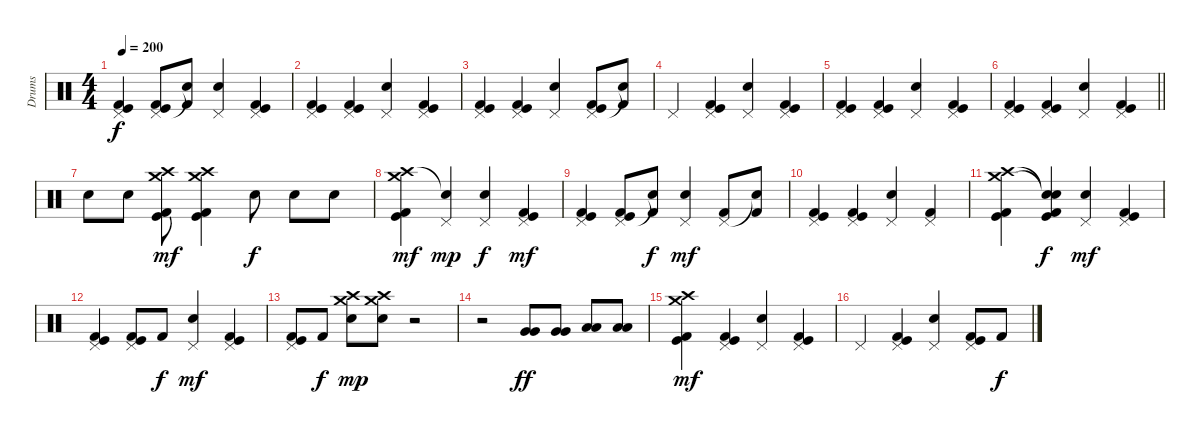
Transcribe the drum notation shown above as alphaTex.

\track ("Drums" "Drums") {instrument percussion}
\staff {score}
\articulation defaults
\ts (4 4)
\tempo 200
\clef neutral
\ks c
("Pedal Hi-Hat (hit)" "Kick (hit)" "Kick (hit) 2").4{dy f} ("Pedal Hi-Hat (hit)" "Kick (hit)" "Kick (hit) 2").8 ("Snare (hit)"{t} "Kick (hit) 2").8 ("Pedal Hi-Hat (hit)" "Snare (hit) 2").4 ("Pedal Hi-Hat (hit)" "Kick (hit)" "Kick (hit) 2").4 |
("Pedal Hi-Hat (hit)" "Kick (hit)" "Kick (hit) 2").4 ("Pedal Hi-Hat (hit)" "Kick (hit)" "Kick (hit) 2").4 ("Pedal Hi-Hat (hit)" "Snare (hit) 2").4 ("Pedal Hi-Hat (hit)" "Kick (hit)" "Kick (hit) 2").4 |
("Pedal Hi-Hat (hit)" "Kick (hit)" "Kick (hit) 2").4 ("Pedal Hi-Hat (hit)" "Kick (hit)" "Kick (hit) 2").4 ("Pedal Hi-Hat (hit)" "Snare (hit) 2").4 ("Pedal Hi-Hat (hit)" "Kick (hit)" "Kick (hit) 2").8 ("Snare (hit)"{t} "Kick (hit) 2").8 |
"Pedal Hi-Hat (hit)".4 ("Pedal Hi-Hat (hit)" "Kick (hit)" "Kick (hit) 2").4 ("Pedal Hi-Hat (hit)" "Snare (hit) 2").4 ("Pedal Hi-Hat (hit)" "Kick (hit)" "Kick (hit) 2").4 |
("Pedal Hi-Hat (hit)" "Kick (hit)" "Kick (hit) 2").4 ("Pedal Hi-Hat (hit)" "Kick (hit)" "Kick (hit) 2").4 ("Pedal Hi-Hat (hit)" "Snare (hit) 2").4 ("Pedal Hi-Hat (hit)" "Kick (hit)" "Kick (hit) 2").4 |
\barLineRight lightlight
("Pedal Hi-Hat (hit)" "Kick (hit)" "Kick (hit) 2").4 ("Pedal Hi-Hat (hit)" "Kick (hit)" "Kick (hit) 2").4 ("Pedal Hi-Hat (hit)" "Snare (hit) 2").4 ("Pedal Hi-Hat (hit)" "Kick (hit)" "Kick (hit) 2").4 |
"Snare (hit) 2".8 "Snare (hit) 2".8 ("Crash high (hit)" "Crash medium (hit)" "Kick (hit)" "Kick (hit) 2").8{dy mf} ("Crash high (hit)" "Crash medium (hit)" "Kick (hit)" "Kick (hit) 2").4 "Snare (hit) 2".8{dy f} "Snare (hit) 2".8 "Snare (hit) 2".8 |
("Crash high (hit)" "Crash medium (hit)" "Kick (hit)" "Kick (hit) 2").4{dy mf} ("Snare (hit)"{t} "Pedal Hi-Hat (hit)").4{dy mp} ("Pedal Hi-Hat (hit)" "Snare (hit) 2").4{dy f} ("Pedal Hi-Hat (hit)" "Kick (hit)" "Kick (hit) 2").4{dy mf} |
("Pedal Hi-Hat (hit)" "Kick (hit)" "Kick (hit) 2").4 ("Pedal Hi-Hat (hit)" "Kick (hit)" "Kick (hit) 2").8 ("Snare (hit)"{t} "Kick (hit) 2").8{dy f} ("Pedal Hi-Hat (hit)" "Snare (hit) 2").4{dy mf} ("Pedal Hi-Hat (hit)" "Kick (hit) 2").8 ("Snare (hit)"{t} "Kick (hit) 2").8 |
("Pedal Hi-Hat (hit)" "Kick (hit)" "Kick (hit) 2").4 ("Pedal Hi-Hat (hit)" "Kick (hit)" "Kick (hit) 2").4 ("Pedal Hi-Hat (hit)" "Snare (hit) 2").4 ("Pedal Hi-Hat (hit)" "Kick (hit) 2").4 |
("Crash high (hit)" "Crash medium (hit)" "Kick (hit)" "Kick (hit) 2").4 ("Snare (hit)"{t} "Snare (hit)"{t} "Kick (hit)" "Kick (hit) 2").4{dy f} ("Pedal Hi-Hat (hit)" "Snare (hit) 2").4{dy mf} ("Pedal Hi-Hat (hit)" "Kick (hit)" "Kick (hit) 2").4 |
("Pedal Hi-Hat (hit)" "Kick (hit)" "Kick (hit) 2").4 ("Pedal Hi-Hat (hit)" "Kick (hit)" "Kick (hit) 2").8 "Kick (hit) 2".8{dy f} ("Pedal Hi-Hat (hit)" "Snare (hit) 2").4{dy mf} ("Pedal Hi-Hat (hit)" "Kick (hit)" "Kick (hit) 2").4 |
("Pedal Hi-Hat (hit)" "Kick (hit)" "Kick (hit) 2").8 "Kick (hit) 2".8{dy f} ("Crash high (hit)" "Crash medium (hit)" "Snare (hit) 2").8{dy mp} ("Crash high (hit)" "Crash medium (hit)" "Snare (hit) 2").8 r.2 |
r.2 ("Very Low Tom (hit)" "Very Low Tom (hit)").8{dy ff} ("Very Low Tom (hit)" "Very Low Tom (hit)").8 ("Low Tom (hit)" "Low Tom (hit)").8 ("Low Tom (hit)" "Low Tom (hit)").8 |
("Crash high (hit)" "Crash medium (hit)" "Kick (hit)" "Kick (hit) 2").4{dy mf} ("Pedal Hi-Hat (hit)" "Kick (hit)" "Kick (hit) 2").4 ("Pedal Hi-Hat (hit)" "Snare (hit) 2").4 ("Pedal Hi-Hat (hit)" "Kick (hit)" "Kick (hit) 2").4 |
"Pedal Hi-Hat (hit)".4 ("Pedal Hi-Hat (hit)" "Kick (hit)" "Kick (hit) 2").4 ("Pedal Hi-Hat (hit)" "Snare (hit) 2").4 ("Pedal Hi-Hat (hit)" "Kick (hit)" "Kick (hit) 2").8 "Kick (hit) 2".8{dy f}
